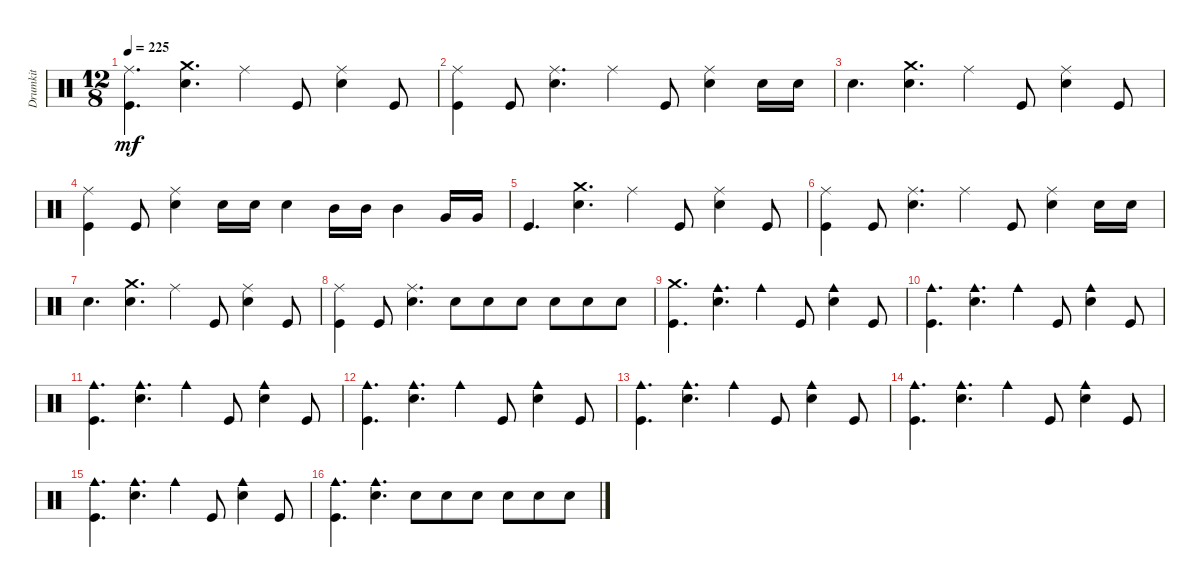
\track ("Drumkit" "Drumkit") {instrument percussion}
\staff {score}
\articulation defaults
\ts (12 8)
\tempo 225
\clef neutral
\ks c
("Kick (hit)" "Ride (middle)").4{d dy mf} ("Snare (hit) 2" "Crash medium (hit)").4{d} "Ride (middle)".4 "Kick (hit)".8 ("Snare (hit) 2" "Ride (middle)").4 "Kick (hit)".8 |
("Kick (hit)" "Ride (middle)").4 "Kick (hit)".8 ("Snare (hit) 2" "Ride (middle)").4{d} "Ride (middle)".4 "Kick (hit)".8 ("Snare (hit) 2" "Ride (middle)").4 "Snare (hit) 2".16 "Snare (hit) 2".16 |
"Snare (hit) 2".4{d} ("Snare (hit) 2" "Crash medium (hit)").4{d} "Ride (middle)".4 "Kick (hit)".8 ("Snare (hit) 2" "Ride (middle)").4 "Kick (hit)".8 |
("Kick (hit)" "Ride (middle)").4 "Kick (hit)".8 ("Snare (hit) 2" "Ride (middle)").4 "Snare (hit) 2".16 "Snare (hit) 2".16 "Snare (hit) 2".4 "Mid Tom (hit)".16 "Mid Tom (hit)".16 "Mid Tom (hit)".4 "Very Low Tom (hit)".16 "Very Low Tom (hit)".16 |
"Kick (hit)".4{d} ("Snare (hit) 2" "Crash medium (hit)").4{d} "Ride (middle)".4 "Kick (hit)".8 ("Snare (hit) 2" "Ride (middle)").4 "Kick (hit)".8 |
("Kick (hit)" "Ride (middle)").4 "Kick (hit)".8 ("Snare (hit) 2" "Ride (middle)").4{d} "Ride (middle)".4 "Kick (hit)".8 ("Snare (hit) 2" "Ride (middle)").4 "Snare (hit) 2".16 "Snare (hit) 2".16 |
"Snare (hit) 2".4{d} ("Snare (hit) 2" "Crash medium (hit)").4{d} "Ride (middle)".4 "Kick (hit)".8 ("Snare (hit) 2" "Ride (middle)").4 "Kick (hit)".8 |
("Kick (hit)" "Ride (middle)").4 "Kick (hit)".8 ("Snare (hit) 2" "Ride (middle)").4{d} "Snare (hit) 2".8 "Snare (hit) 2".8 "Snare (hit) 2".8 "Snare (hit) 2".8 "Snare (hit) 2".8 "Snare (hit) 2".8 |
("Kick (hit)" "Crash medium (hit)").4{d} ("Snare (hit) 2" "Cowbell medium (hit)").4{d} "Cowbell medium (hit)".4 "Kick (hit)".8 ("Cowbell medium (hit)" "Snare (hit) 2").4 "Kick (hit)".8 |
("Cowbell medium (hit)" "Kick (hit)").4{d} ("Cowbell medium (hit)" "Snare (hit) 2").4{d} "Cowbell medium (hit)".4 "Kick (hit)".8 ("Cowbell medium (hit)" "Snare (hit) 2").4 "Kick (hit)".8 |
("Kick (hit)" "Cowbell medium (hit)").4{d} ("Snare (hit) 2" "Cowbell medium (hit)").4{d} "Cowbell medium (hit)".4 "Kick (hit)".8 ("Cowbell medium (hit)" "Snare (hit) 2").4 "Kick (hit)".8 |
("Cowbell medium (hit)" "Kick (hit)").4{d} ("Cowbell medium (hit)" "Snare (hit) 2").4{d} "Cowbell medium (hit)".4 "Kick (hit)".8 ("Cowbell medium (hit)" "Snare (hit) 2").4 "Kick (hit)".8 |
("Kick (hit)" "Cowbell medium (hit)").4{d} ("Snare (hit) 2" "Cowbell medium (hit)").4{d} "Cowbell medium (hit)".4 "Kick (hit)".8 ("Cowbell medium (hit)" "Snare (hit) 2").4 "Kick (hit)".8 |
("Cowbell medium (hit)" "Kick (hit)").4{d} ("Cowbell medium (hit)" "Snare (hit) 2").4{d} "Cowbell medium (hit)".4 "Kick (hit)".8 ("Cowbell medium (hit)" "Snare (hit) 2").4 "Kick (hit)".8 |
("Kick (hit)" "Cowbell medium (hit)").4{d} ("Snare (hit) 2" "Cowbell medium (hit)").4{d} "Cowbell medium (hit)".4 "Kick (hit)".8 ("Cowbell medium (hit)" "Snare (hit) 2").4 "Kick (hit)".8 |
("Cowbell medium (hit)" "Kick (hit)").4{d} ("Cowbell medium (hit)" "Snare (hit) 2").4{d} "Snare (hit) 2".8 "Snare (hit) 2".8 "Snare (hit) 2".8 "Snare (hit) 2".8 "Snare (hit) 2".8 "Snare (hit) 2".8
